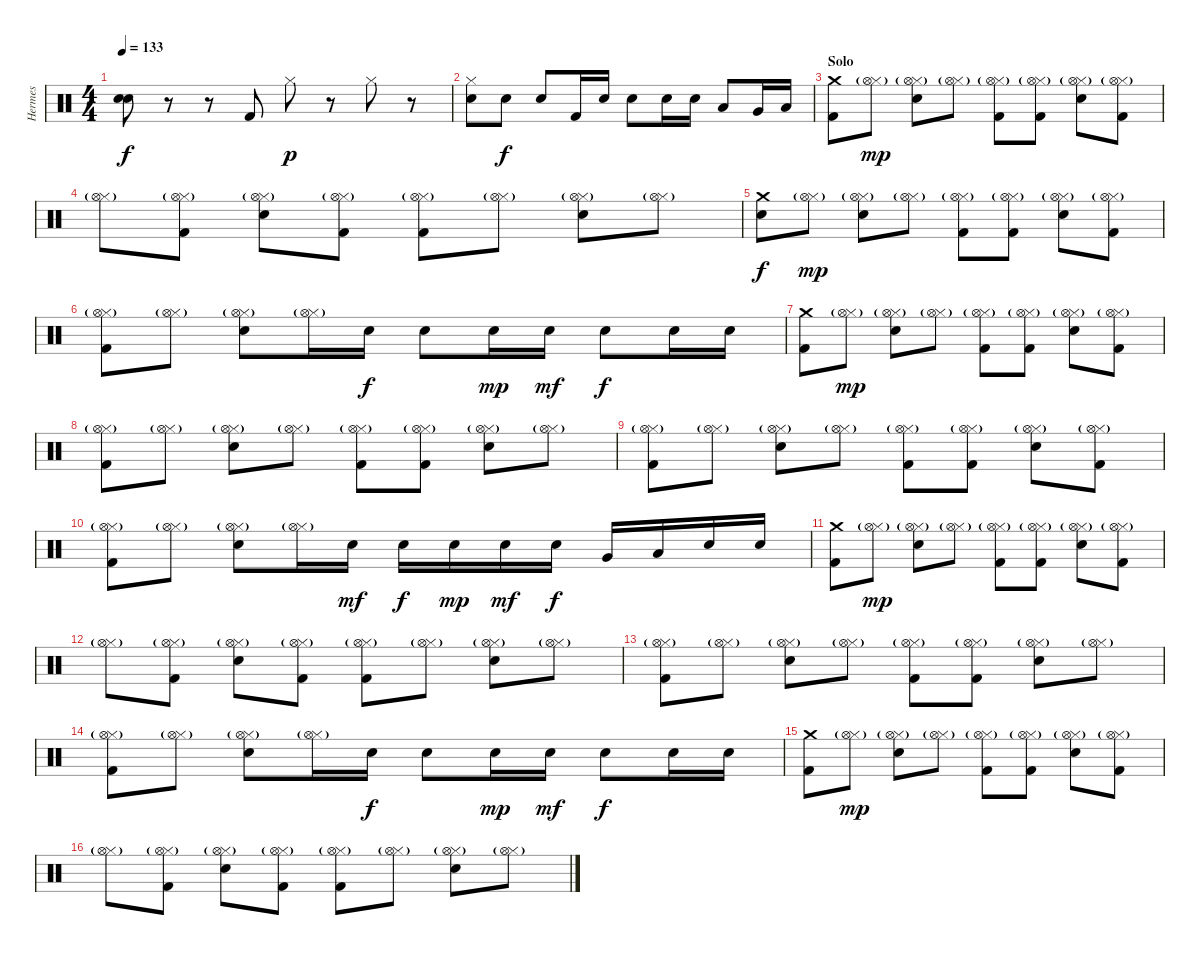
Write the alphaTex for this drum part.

\track ("Hermes" "Hermes") {instrument percussion}
\staff {score}
\articulation defaults
\ts (4 4)
\tempo 133
\clef neutral
\ks c
("Snare (hit) 2" "Snare (hit) 2").8{dy f} r.8 r.8 "Kick (hit) 2".8 "Hi-Hat (closed)".8{dy p} r.8 "Hi-Hat (closed)".8 r.8 |
("Hi-Hat (closed)" "Snare (hit) 2").8 "Snare (hit) 2".8{dy f} "Snare (hit) 2".8 "Kick (hit) 2".16 "Snare (hit) 2".16 "Snare (hit) 2".8 "Snare (hit) 2".16 "Snare (hit) 2".16 "Low Tom (hit)".8 "Very Low Tom (hit)".16 "Low Floor Tom (hit)".16 |
\section ("" "Solo")
("Crash medium (hit)" "Kick (hit) 2").8 ("Hi-Hat (closed)" "Hi-Hat (open)"{g}).8{dy mp} ("Hi-Hat (closed)" "Hi-Hat (open)"{g} "Snare (hit) 2").8 ("Hi-Hat (closed)" "Hi-Hat (open)"{g}).8 ("Hi-Hat (closed)" "Hi-Hat (open)"{g} "Kick (hit) 2").8 ("Hi-Hat (closed)" "Hi-Hat (open)"{g} "Kick (hit) 2").8 ("Hi-Hat (closed)" "Hi-Hat (open)"{g} "Snare (hit) 2").8 ("Hi-Hat (closed)" "Hi-Hat (open)"{g} "Kick (hit) 2").8 |
("Hi-Hat (closed)" "Hi-Hat (open)"{g}).8 ("Hi-Hat (closed)" "Hi-Hat (open)"{g} "Kick (hit) 2").8 ("Hi-Hat (closed)" "Hi-Hat (open)"{g} "Snare (hit) 2").8 ("Hi-Hat (closed)" "Hi-Hat (open)"{g} "Kick (hit) 2").8 ("Hi-Hat (closed)" "Hi-Hat (open)"{g} "Kick (hit) 2").8 ("Hi-Hat (closed)" "Hi-Hat (open)"{g}).8 ("Hi-Hat (closed)" "Hi-Hat (open)"{g} "Snare (hit) 2").8 ("Hi-Hat (closed)" "Hi-Hat (open)"{g}).8 |
("Crash medium (hit)" "Snare (hit) 2").8{dy f} ("Hi-Hat (closed)" "Hi-Hat (open)"{g}).8{dy mp} ("Hi-Hat (closed)" "Hi-Hat (open)"{g} "Snare (hit) 2").8 ("Hi-Hat (closed)" "Hi-Hat (open)"{g}).8 ("Hi-Hat (closed)" "Hi-Hat (open)"{g} "Kick (hit) 2").8 ("Hi-Hat (closed)" "Hi-Hat (open)"{g} "Kick (hit) 2").8 ("Hi-Hat (closed)" "Hi-Hat (open)"{g} "Snare (hit) 2").8 ("Hi-Hat (closed)" "Hi-Hat (open)"{g} "Kick (hit) 2").8 |
("Hi-Hat (closed)" "Hi-Hat (open)"{g} "Kick (hit) 2").8 ("Hi-Hat (closed)" "Hi-Hat (open)"{g}).8 ("Hi-Hat (closed)" "Hi-Hat (open)"{g} "Snare (hit) 2").8 ("Hi-Hat (closed)" "Hi-Hat (open)"{g}).16 "Snare (hit) 2".16{dy f} "Snare (hit) 2".8 "Snare (hit) 2".16{dy mp} "Snare (hit) 2".16{dy mf} "Snare (hit) 2".8{dy f} "Snare (hit) 2".16 "Snare (hit) 2".16 |
("Crash medium (hit)" "Kick (hit) 2").8 ("Hi-Hat (closed)" "Hi-Hat (open)"{g}).8{dy mp} ("Hi-Hat (closed)" "Hi-Hat (open)"{g} "Snare (hit) 2").8 ("Hi-Hat (closed)" "Hi-Hat (open)"{g}).8 ("Hi-Hat (closed)" "Hi-Hat (open)"{g} "Kick (hit) 2").8 ("Hi-Hat (closed)" "Hi-Hat (open)"{g} "Kick (hit) 2").8 ("Hi-Hat (closed)" "Hi-Hat (open)"{g} "Snare (hit) 2").8 ("Hi-Hat (closed)" "Hi-Hat (open)"{g} "Kick (hit) 2").8 |
("Hi-Hat (closed)" "Hi-Hat (open)"{g} "Kick (hit) 2").8 ("Hi-Hat (closed)" "Hi-Hat (open)"{g}).8 ("Hi-Hat (closed)" "Hi-Hat (open)"{g} "Snare (hit) 2").8 ("Hi-Hat (closed)" "Hi-Hat (open)"{g}).8 ("Hi-Hat (closed)" "Hi-Hat (open)"{g} "Kick (hit) 2").8 ("Hi-Hat (closed)" "Hi-Hat (open)"{g} "Kick (hit) 2").8 ("Hi-Hat (closed)" "Hi-Hat (open)"{g} "Snare (hit) 2").8 ("Hi-Hat (closed)" "Hi-Hat (open)"{g}).8 |
("Hi-Hat (closed)" "Hi-Hat (open)"{g} "Kick (hit) 2").8 ("Hi-Hat (closed)" "Hi-Hat (open)"{g}).8 ("Hi-Hat (closed)" "Hi-Hat (open)"{g} "Snare (hit) 2").8 ("Hi-Hat (closed)" "Hi-Hat (open)"{g}).8 ("Hi-Hat (closed)" "Hi-Hat (open)"{g} "Kick (hit) 2").8 ("Hi-Hat (closed)" "Hi-Hat (open)"{g} "Kick (hit) 2").8 ("Hi-Hat (closed)" "Hi-Hat (open)"{g} "Snare (hit) 2").8 ("Hi-Hat (closed)" "Hi-Hat (open)"{g} "Kick (hit) 2").8 |
("Hi-Hat (closed)" "Hi-Hat (open)"{g} "Kick (hit) 2").8 ("Hi-Hat (closed)" "Hi-Hat (open)"{g}).8 ("Hi-Hat (closed)" "Hi-Hat (open)"{g} "Snare (hit) 2").8 ("Hi-Hat (closed)" "Hi-Hat (open)"{g}).16 "Snare (hit) 2".16{dy mf} "Snare (hit) 2".16{dy f} "Snare (hit) 2".16{dy mp} "Snare (hit) 2".16{dy mf} "Snare (hit) 2".16{dy f} "Very Low Tom (hit)".16 "Low Floor Tom (hit)".16 "Snare (hit) 2".16 "Snare (hit) 2".16 |
("Crash medium (hit)" "Kick (hit) 2").8 ("Hi-Hat (closed)" "Hi-Hat (open)"{g}).8{dy mp} ("Hi-Hat (closed)" "Hi-Hat (open)"{g} "Snare (hit) 2").8 ("Hi-Hat (closed)" "Hi-Hat (open)"{g}).8 ("Hi-Hat (closed)" "Hi-Hat (open)"{g} "Kick (hit) 2").8 ("Hi-Hat (closed)" "Hi-Hat (open)"{g} "Kick (hit) 2").8 ("Hi-Hat (closed)" "Hi-Hat (open)"{g} "Snare (hit) 2").8 ("Hi-Hat (closed)" "Hi-Hat (open)"{g} "Kick (hit) 2").8 |
("Hi-Hat (closed)" "Hi-Hat (open)"{g}).8 ("Hi-Hat (closed)" "Hi-Hat (open)"{g} "Kick (hit) 2").8 ("Hi-Hat (closed)" "Hi-Hat (open)"{g} "Snare (hit) 2").8 ("Hi-Hat (closed)" "Hi-Hat (open)"{g} "Kick (hit) 2").8 ("Hi-Hat (closed)" "Hi-Hat (open)"{g} "Kick (hit) 2").8 ("Hi-Hat (closed)" "Hi-Hat (open)"{g}).8 ("Hi-Hat (closed)" "Hi-Hat (open)"{g} "Snare (hit) 2").8 ("Hi-Hat (closed)" "Hi-Hat (open)"{g}).8 |
("Hi-Hat (closed)" "Hi-Hat (open)"{g} "Kick (hit) 2").8 ("Hi-Hat (closed)" "Hi-Hat (open)"{g}).8 ("Hi-Hat (closed)" "Hi-Hat (open)"{g} "Snare (hit) 2").8 ("Hi-Hat (closed)" "Hi-Hat (open)"{g}).8 ("Hi-Hat (closed)" "Hi-Hat (open)"{g} "Kick (hit) 2").8 ("Hi-Hat (closed)" "Hi-Hat (open)"{g} "Kick (hit) 2").8 ("Hi-Hat (closed)" "Hi-Hat (open)"{g} "Snare (hit) 2").8 ("Hi-Hat (closed)" "Hi-Hat (open)"{g}).8 |
("Hi-Hat (closed)" "Hi-Hat (open)"{g} "Kick (hit) 2").8 ("Hi-Hat (closed)" "Hi-Hat (open)"{g}).8 ("Hi-Hat (closed)" "Hi-Hat (open)"{g} "Snare (hit) 2").8 ("Hi-Hat (closed)" "Hi-Hat (open)"{g}).16 "Snare (hit) 2".16{dy f} "Snare (hit) 2".8 "Snare (hit) 2".16{dy mp} "Snare (hit) 2".16{dy mf} "Snare (hit) 2".8{dy f} "Snare (hit) 2".16 "Snare (hit) 2".16 |
("Crash medium (hit)" "Kick (hit) 2").8 ("Hi-Hat (closed)" "Hi-Hat (open)"{g}).8{dy mp} ("Hi-Hat (closed)" "Hi-Hat (open)"{g} "Snare (hit) 2").8 ("Hi-Hat (closed)" "Hi-Hat (open)"{g}).8 ("Hi-Hat (closed)" "Hi-Hat (open)"{g} "Kick (hit) 2").8 ("Hi-Hat (closed)" "Hi-Hat (open)"{g} "Kick (hit) 2").8 ("Hi-Hat (closed)" "Hi-Hat (open)"{g} "Snare (hit) 2").8 ("Hi-Hat (closed)" "Hi-Hat (open)"{g} "Kick (hit) 2").8 |
("Hi-Hat (closed)" "Hi-Hat (open)"{g}).8 ("Hi-Hat (closed)" "Hi-Hat (open)"{g} "Kick (hit) 2").8 ("Hi-Hat (closed)" "Hi-Hat (open)"{g} "Snare (hit) 2").8 ("Hi-Hat (closed)" "Hi-Hat (open)"{g} "Kick (hit) 2").8 ("Hi-Hat (closed)" "Hi-Hat (open)"{g} "Kick (hit) 2").8 ("Hi-Hat (closed)" "Hi-Hat (open)"{g}).8 ("Hi-Hat (closed)" "Hi-Hat (open)"{g} "Snare (hit) 2").8 ("Hi-Hat (closed)" "Hi-Hat (open)"{g}).8
